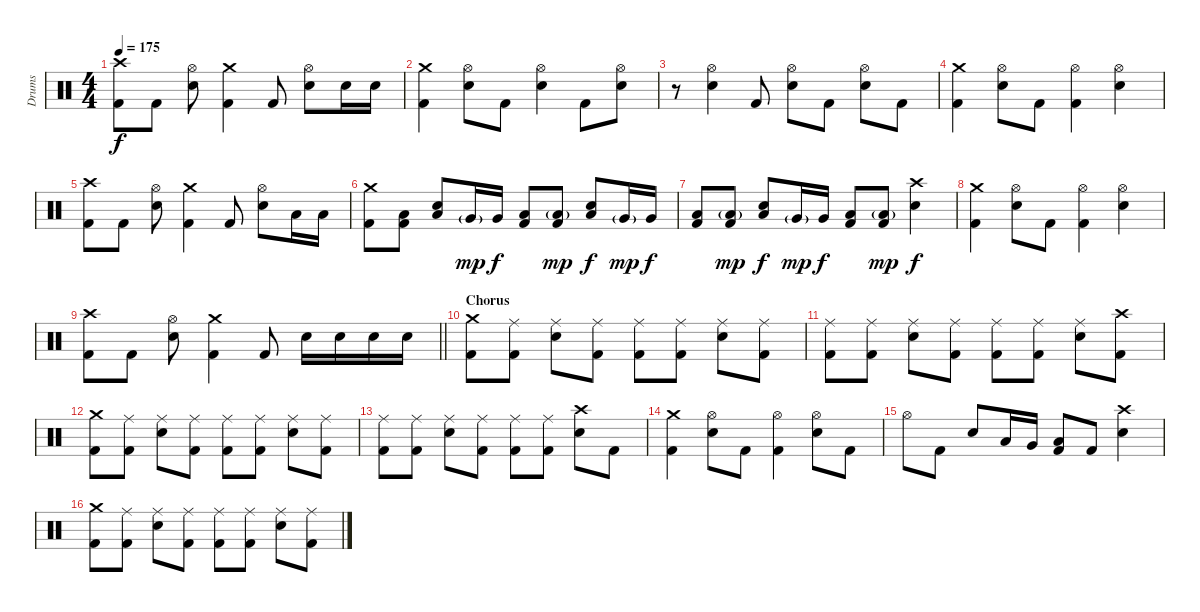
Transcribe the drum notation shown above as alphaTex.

\track ("Drums" "Drums") {instrument percussion}
\staff {score}
\articulation defaults
\ts (4 4)
\tempo 175
\clef neutral
\ks c
("Crash high (hit)" "Kick (hit) 2").8{dy f} "Kick (hit) 2".8 ("Hi-Hat (open)" "Electric Snare (hit)").8 ("Crash medium (hit)" "Kick (hit) 2").4 "Kick (hit) 2".8 ("Hi-Hat (open)" "Electric Snare (hit)").8 "Electric Snare (hit)".16 "Electric Snare (hit)".16 |
("Crash medium (hit)" "Kick (hit) 2").4 ("Hi-Hat (open)" "Electric Snare (hit)").8 "Kick (hit) 2".8 ("Hi-Hat (open)" "Electric Snare (hit)").4 "Kick (hit) 2".8 ("Hi-Hat (open)" "Electric Snare (hit)").8 |
r.8 ("Hi-Hat (open)" "Electric Snare (hit)").4 "Kick (hit) 2".8 ("Hi-Hat (open)" "Electric Snare (hit)").8 "Kick (hit) 2".8 ("Hi-Hat (open)" "Electric Snare (hit)").8 "Kick (hit) 2".8 |
("Crash medium (hit)" "Kick (hit) 2").4 ("Hi-Hat (open)" "Electric Snare (hit)").8 "Kick (hit) 2".8 ("Hi-Hat (open)" "Kick (hit) 2").4 ("Hi-Hat (open)" "Electric Snare (hit)").4 |
("Crash high (hit)" "Kick (hit) 2").8 "Kick (hit) 2".8 ("Hi-Hat (open)" "Electric Snare (hit)").8 ("Crash medium (hit)" "Kick (hit) 2").4 "Kick (hit) 2".8 ("Hi-Hat (open)" "Electric Snare (hit)").8 "Low Tom (hit)".16 "Low Tom (hit)".16 |
("Crash medium (hit)" "Kick (hit) 2").8 ("Low Floor Tom (hit)" "Kick (hit) 2").8 ("Low Floor Tom (hit)" "Electric Snare (hit)").8 "Very Low Tom (hit)"{g}.16{dy mp} "Very Low Tom (hit)".16{dy f} ("Low Floor Tom (hit)" "Kick (hit) 2").8 ("Low Floor Tom (hit)"{g} "Kick (hit) 2").8{dy mp} ("Low Floor Tom (hit)" "Electric Snare (hit)").8{dy f} "Very Low Tom (hit)"{g}.16{dy mp} "Very Low Tom (hit)".16{dy f} |
("Low Floor Tom (hit)" "Kick (hit) 2").8 ("Low Floor Tom (hit)"{g} "Kick (hit) 2").8{dy mp} ("Low Floor Tom (hit)" "Electric Snare (hit)").8{dy f} "Very Low Tom (hit)"{g}.16{dy mp} "Very Low Tom (hit)".16{dy f} ("Low Floor Tom (hit)" "Kick (hit) 2").8 ("Low Floor Tom (hit)"{g} "Kick (hit) 2").8{dy mp} ("Crash high (hit)" "Electric Snare (hit)").4{dy f} |
("Crash medium (hit)" "Kick (hit) 2").4 ("Hi-Hat (open)" "Electric Snare (hit)").8 "Kick (hit) 2".8 ("Hi-Hat (open)" "Kick (hit) 2").4 ("Hi-Hat (open)" "Electric Snare (hit)").4 |
\barLineRight lightlight
("Crash high (hit)" "Kick (hit) 2").8 "Kick (hit) 2".8 ("Hi-Hat (open)" "Electric Snare (hit)").8 ("Crash medium (hit)" "Kick (hit) 2").4 "Kick (hit) 2".8 "Electric Snare (hit)".16 "Electric Snare (hit)".16 "Electric Snare (hit)".16 "Electric Snare (hit)".16 |
\section ("" "Chorus")
("Crash medium (hit)" "Kick (hit) 2").8 ("Ride (middle)" "Kick (hit) 2").8 ("Ride (middle)" "Electric Snare (hit)").8 ("Ride (middle)" "Kick (hit) 2").8 ("Ride (middle)" "Kick (hit) 2").8 ("Ride (middle)" "Kick (hit) 2").8 ("Ride (middle)" "Electric Snare (hit)").8 ("Ride (middle)" "Kick (hit) 2").8 |
("Ride (middle)" "Kick (hit) 2").8 ("Ride (middle)" "Kick (hit) 2").8 ("Ride (middle)" "Electric Snare (hit)").8 ("Ride (middle)" "Kick (hit) 2").8 ("Ride (middle)" "Kick (hit) 2").8 ("Ride (middle)" "Kick (hit) 2").8 ("Ride (middle)" "Electric Snare (hit)").8 ("Crash high (hit)" "Kick (hit) 2").8 |
("Crash medium (hit)" "Kick (hit) 2").8 ("Ride (middle)" "Kick (hit) 2").8 ("Ride (middle)" "Electric Snare (hit)").8 ("Ride (middle)" "Kick (hit) 2").8 ("Ride (middle)" "Kick (hit) 2").8 ("Ride (middle)" "Kick (hit) 2").8 ("Ride (middle)" "Electric Snare (hit)").8 ("Ride (middle)" "Kick (hit) 2").8 |
("Ride (middle)" "Kick (hit) 2").8 ("Ride (middle)" "Kick (hit) 2").8 ("Ride (middle)" "Electric Snare (hit)").8 ("Ride (middle)" "Kick (hit) 2").8 ("Ride (middle)" "Kick (hit) 2").8 ("Ride (middle)" "Kick (hit) 2").8 ("Crash high (hit)" "Electric Snare (hit)").8 "Kick (hit) 2".8 |
("Crash medium (hit)" "Kick (hit) 2").4 ("Hi-Hat (open)" "Electric Snare (hit)").8 "Kick (hit) 2".8 ("Hi-Hat (open)" "Kick (hit) 2").4 ("Hi-Hat (open)" "Electric Snare (hit)").8 "Kick (hit) 2".8 |
"Hi-Hat (open)".8 "Kick (hit) 2".8 "Electric Snare (hit)".8 "Low Tom (hit)".16 "Very Low Tom (hit)".16 ("Low Floor Tom (hit)" "Kick (hit) 2").8 "Kick (hit) 2".8 ("Crash high (hit)" "Electric Snare (hit)").4 |
("Crash medium (hit)" "Kick (hit) 2").8 ("Ride (middle)" "Kick (hit) 2").8 ("Ride (middle)" "Electric Snare (hit)").8 ("Ride (middle)" "Kick (hit) 2").8 ("Ride (middle)" "Kick (hit) 2").8 ("Ride (middle)" "Kick (hit) 2").8 ("Ride (middle)" "Electric Snare (hit)").8 ("Ride (middle)" "Kick (hit) 2").8
